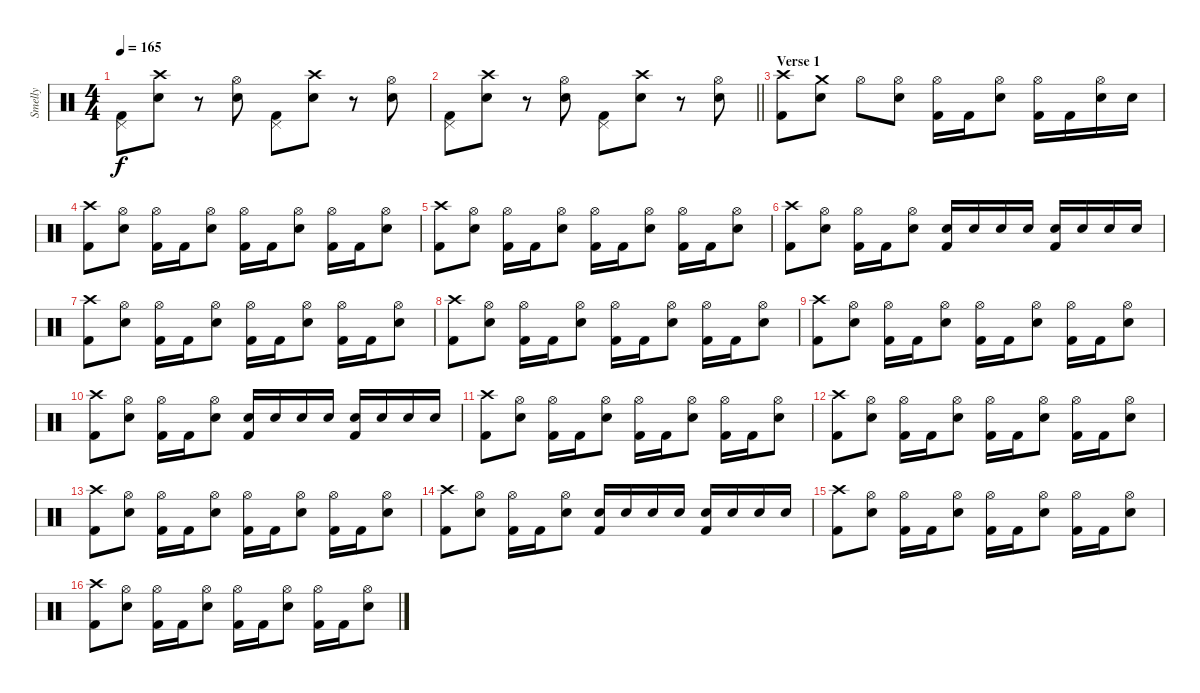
\track ("Smelly" "Smelly") {instrument percussion}
\staff {score}
\articulation defaults
\ts (4 4)
\tempo 165
\clef neutral
\ks c
("Pedal Hi-Hat (hit)" "Kick (hit) 2").8{dy f} ("Crash high (hit)" "Electric Snare (hit)").8 r.8 ("Hi-Hat (open)" "Electric Snare (hit)").8 ("Pedal Hi-Hat (hit)" "Kick (hit) 2").8 ("Crash high (hit)" "Electric Snare (hit)").8 r.8 ("Hi-Hat (open)" "Electric Snare (hit)").8 |
\barLineRight lightlight
("Pedal Hi-Hat (hit)" "Kick (hit) 2").8 ("Crash high (hit)" "Electric Snare (hit)").8 r.8 ("Hi-Hat (open)" "Electric Snare (hit)").8 ("Pedal Hi-Hat (hit)" "Kick (hit) 2").8 ("Crash high (hit)" "Electric Snare (hit)").8 r.8 ("Hi-Hat (open)" "Electric Snare (hit)").8 |
\section ("" "Verse 1")
("Crash high (hit)" "Kick (hit) 2").8 ("Crash medium (hit)" "Electric Snare (hit)").8 "Hi-Hat (open)".8 ("Hi-Hat (open)" "Electric Snare (hit)").8 ("Hi-Hat (open)" "Kick (hit) 2").16 "Kick (hit) 2".16 ("Hi-Hat (open)" "Electric Snare (hit)").8 ("Hi-Hat (open)" "Kick (hit) 2").16 "Kick (hit) 2".16 ("Hi-Hat (open)" "Electric Snare (hit)").16 "Electric Snare (hit)".16 |
("Crash high (hit)" "Kick (hit) 2").8 ("Hi-Hat (open)" "Electric Snare (hit)").8 ("Hi-Hat (open)" "Kick (hit) 2").16 "Kick (hit) 2".16 ("Hi-Hat (open)" "Electric Snare (hit)").8 ("Hi-Hat (open)" "Kick (hit) 2").16 "Kick (hit) 2".16 ("Hi-Hat (open)" "Electric Snare (hit)").8 ("Hi-Hat (open)" "Kick (hit) 2").16 "Kick (hit) 2".16 ("Hi-Hat (open)" "Electric Snare (hit)").8 |
("Crash high (hit)" "Kick (hit) 2").8 ("Hi-Hat (open)" "Electric Snare (hit)").8 ("Hi-Hat (open)" "Kick (hit) 2").16 "Kick (hit) 2".16 ("Hi-Hat (open)" "Electric Snare (hit)").8 ("Hi-Hat (open)" "Kick (hit) 2").16 "Kick (hit) 2".16 ("Hi-Hat (open)" "Electric Snare (hit)").8 ("Hi-Hat (open)" "Kick (hit) 2").16 "Kick (hit) 2".16 ("Hi-Hat (open)" "Electric Snare (hit)").8 |
("Crash high (hit)" "Kick (hit) 2").8 ("Hi-Hat (open)" "Electric Snare (hit)").8 ("Hi-Hat (open)" "Kick (hit) 2").16 "Kick (hit) 2".16 ("Hi-Hat (open)" "Electric Snare (hit)").8 ("Electric Snare (hit)" "Kick (hit) 2").16 "Electric Snare (hit)".16 "Electric Snare (hit)".16 "Electric Snare (hit)".16 ("Electric Snare (hit)" "Kick (hit) 2").16 "Electric Snare (hit)".16 "Electric Snare (hit)".16 "Electric Snare (hit)".16 |
("Crash high (hit)" "Kick (hit) 2").8 ("Hi-Hat (open)" "Electric Snare (hit)").8 ("Hi-Hat (open)" "Kick (hit) 2").16 "Kick (hit) 2".16 ("Hi-Hat (open)" "Electric Snare (hit)").8 ("Hi-Hat (open)" "Kick (hit) 2").16 "Kick (hit) 2".16 ("Hi-Hat (open)" "Electric Snare (hit)").8 ("Hi-Hat (open)" "Kick (hit) 2").16 "Kick (hit) 2".16 ("Hi-Hat (open)" "Electric Snare (hit)").8 |
("Crash high (hit)" "Kick (hit) 2").8 ("Hi-Hat (open)" "Electric Snare (hit)").8 ("Hi-Hat (open)" "Kick (hit) 2").16 "Kick (hit) 2".16 ("Hi-Hat (open)" "Electric Snare (hit)").8 ("Hi-Hat (open)" "Kick (hit) 2").16 "Kick (hit) 2".16 ("Hi-Hat (open)" "Electric Snare (hit)").8 ("Hi-Hat (open)" "Kick (hit) 2").16 "Kick (hit) 2".16 ("Hi-Hat (open)" "Electric Snare (hit)").8 |
("Crash high (hit)" "Kick (hit) 2").8 ("Hi-Hat (open)" "Electric Snare (hit)").8 ("Hi-Hat (open)" "Kick (hit) 2").16 "Kick (hit) 2".16 ("Hi-Hat (open)" "Electric Snare (hit)").8 ("Hi-Hat (open)" "Kick (hit) 2").16 "Kick (hit) 2".16 ("Hi-Hat (open)" "Electric Snare (hit)").8 ("Hi-Hat (open)" "Kick (hit) 2").16 "Kick (hit) 2".16 ("Hi-Hat (open)" "Electric Snare (hit)").8 |
("Crash high (hit)" "Kick (hit) 2").8 ("Hi-Hat (open)" "Electric Snare (hit)").8 ("Hi-Hat (open)" "Kick (hit) 2").16 "Kick (hit) 2".16 ("Hi-Hat (open)" "Electric Snare (hit)").8 ("Electric Snare (hit)" "Kick (hit) 2").16 "Electric Snare (hit)".16 "Electric Snare (hit)".16 "Electric Snare (hit)".16 ("Electric Snare (hit)" "Kick (hit) 2").16 "Electric Snare (hit)".16 "Electric Snare (hit)".16 "Electric Snare (hit)".16 |
("Crash high (hit)" "Kick (hit) 2").8 ("Hi-Hat (open)" "Electric Snare (hit)").8 ("Hi-Hat (open)" "Kick (hit) 2").16 "Kick (hit) 2".16 ("Hi-Hat (open)" "Electric Snare (hit)").8 ("Hi-Hat (open)" "Kick (hit) 2").16 "Kick (hit) 2".16 ("Hi-Hat (open)" "Electric Snare (hit)").8 ("Hi-Hat (open)" "Kick (hit) 2").16 "Kick (hit) 2".16 ("Hi-Hat (open)" "Electric Snare (hit)").8 |
("Crash high (hit)" "Kick (hit) 2").8 ("Hi-Hat (open)" "Electric Snare (hit)").8 ("Hi-Hat (open)" "Kick (hit) 2").16 "Kick (hit) 2".16 ("Hi-Hat (open)" "Electric Snare (hit)").8 ("Hi-Hat (open)" "Kick (hit) 2").16 "Kick (hit) 2".16 ("Hi-Hat (open)" "Electric Snare (hit)").8 ("Hi-Hat (open)" "Kick (hit) 2").16 "Kick (hit) 2".16 ("Hi-Hat (open)" "Electric Snare (hit)").8 |
("Crash high (hit)" "Kick (hit) 2").8 ("Hi-Hat (open)" "Electric Snare (hit)").8 ("Hi-Hat (open)" "Kick (hit) 2").16 "Kick (hit) 2".16 ("Hi-Hat (open)" "Electric Snare (hit)").8 ("Hi-Hat (open)" "Kick (hit) 2").16 "Kick (hit) 2".16 ("Hi-Hat (open)" "Electric Snare (hit)").8 ("Hi-Hat (open)" "Kick (hit) 2").16 "Kick (hit) 2".16 ("Hi-Hat (open)" "Electric Snare (hit)").8 |
("Crash high (hit)" "Kick (hit) 2").8 ("Hi-Hat (open)" "Electric Snare (hit)").8 ("Hi-Hat (open)" "Kick (hit) 2").16 "Kick (hit) 2".16 ("Hi-Hat (open)" "Electric Snare (hit)").8 ("Electric Snare (hit)" "Kick (hit) 2").16 "Electric Snare (hit)".16 "Electric Snare (hit)".16 "Electric Snare (hit)".16 ("Electric Snare (hit)" "Kick (hit) 2").16 "Electric Snare (hit)".16 "Electric Snare (hit)".16 "Electric Snare (hit)".16 |
("Crash high (hit)" "Kick (hit) 2").8 ("Hi-Hat (open)" "Electric Snare (hit)").8 ("Hi-Hat (open)" "Kick (hit) 2").16 "Kick (hit) 2".16 ("Hi-Hat (open)" "Electric Snare (hit)").8 ("Hi-Hat (open)" "Kick (hit) 2").16 "Kick (hit) 2".16 ("Hi-Hat (open)" "Electric Snare (hit)").8 ("Hi-Hat (open)" "Kick (hit) 2").16 "Kick (hit) 2".16 ("Hi-Hat (open)" "Electric Snare (hit)").8 |
("Crash high (hit)" "Kick (hit) 2").8 ("Hi-Hat (open)" "Electric Snare (hit)").8 ("Hi-Hat (open)" "Kick (hit) 2").16 "Kick (hit) 2".16 ("Hi-Hat (open)" "Electric Snare (hit)").8 ("Hi-Hat (open)" "Kick (hit) 2").16 "Kick (hit) 2".16 ("Hi-Hat (open)" "Electric Snare (hit)").8 ("Hi-Hat (open)" "Kick (hit) 2").16 "Kick (hit) 2".16 ("Hi-Hat (open)" "Electric Snare (hit)").8
